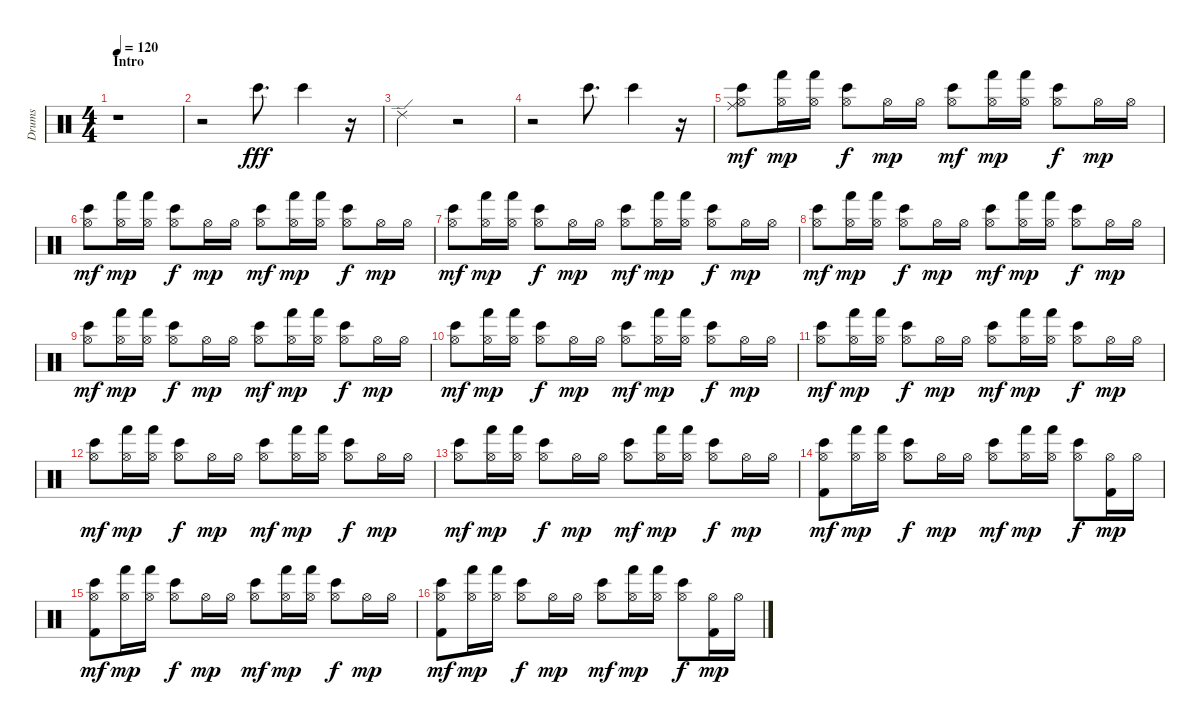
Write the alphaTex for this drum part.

\track ("Drums" "Drums") {instrument percussion}
\staff {score}
\articulation defaults
\ts (4 4)
\section ("" "Intro")
\tempo 120
\clef neutral
\ks c
r.1{dy fff} |
r.2 "Bongo High (hit)".8{d} "Bongo High (hit)".4 r.16 |
"Ride (edge) 2".2 r.2 |
r.2 "Bongo High (hit)".8{d} "Bongo High (hit)".4 r.16 |
("Hi-Hat (open)" "Bongo High (hit)" "Ride (middle)").8{dy mf} ("Hi-Hat (open)" "Hand (hit)").16{dy mp} ("Hi-Hat (open)" "Hand (hit)").16 ("Hi-Hat (open)" "Bongo High (hit)").8{dy f} "Hi-Hat (open)".16{dy mp} "Hi-Hat (open)".16 ("Hi-Hat (open)" "Bongo High (hit)").8{dy mf} ("Hi-Hat (open)" "Hand (hit)").16{dy mp} ("Hi-Hat (open)" "Hand (hit)").16 ("Hi-Hat (open)" "Bongo High (hit)").8{dy f} "Hi-Hat (open)".16{dy mp} "Hi-Hat (open)".16 |
("Hi-Hat (open)" "Bongo High (hit)").8{dy mf} ("Hi-Hat (open)" "Hand (hit)").16{dy mp} ("Hi-Hat (open)" "Hand (hit)").16 ("Hi-Hat (open)" "Bongo High (hit)").8{dy f} "Hi-Hat (open)".16{dy mp} "Hi-Hat (open)".16 ("Hi-Hat (open)" "Bongo High (hit)").8{dy mf} ("Hi-Hat (open)" "Hand (hit)").16{dy mp} ("Hi-Hat (open)" "Hand (hit)").16 ("Hi-Hat (open)" "Bongo High (hit)").8{dy f} "Hi-Hat (open)".16{dy mp} "Hi-Hat (open)".16 |
("Hi-Hat (open)" "Bongo High (hit)").8{dy mf} ("Hi-Hat (open)" "Hand (hit)").16{dy mp} ("Hi-Hat (open)" "Hand (hit)").16 ("Hi-Hat (open)" "Bongo High (hit)").8{dy f} "Hi-Hat (open)".16{dy mp} "Hi-Hat (open)".16 ("Hi-Hat (open)" "Bongo High (hit)").8{dy mf} ("Hi-Hat (open)" "Hand (hit)").16{dy mp} ("Hi-Hat (open)" "Hand (hit)").16 ("Hi-Hat (open)" "Bongo High (hit)").8{dy f} "Hi-Hat (open)".16{dy mp} "Hi-Hat (open)".16 |
("Hi-Hat (open)" "Bongo High (hit)").8{dy mf} ("Hi-Hat (open)" "Hand (hit)").16{dy mp} ("Hi-Hat (open)" "Hand (hit)").16 ("Hi-Hat (open)" "Bongo High (hit)").8{dy f} "Hi-Hat (open)".16{dy mp} "Hi-Hat (open)".16 ("Hi-Hat (open)" "Bongo High (hit)").8{dy mf} ("Hi-Hat (open)" "Hand (hit)").16{dy mp} ("Hi-Hat (open)" "Hand (hit)").16 ("Hi-Hat (open)" "Bongo High (hit)").8{dy f} "Hi-Hat (open)".16{dy mp} "Hi-Hat (open)".16 |
("Hi-Hat (open)" "Bongo High (hit)").8{dy mf} ("Hi-Hat (open)" "Hand (hit)").16{dy mp} ("Hi-Hat (open)" "Hand (hit)").16 ("Hi-Hat (open)" "Bongo High (hit)").8{dy f} "Hi-Hat (open)".16{dy mp} "Hi-Hat (open)".16 ("Hi-Hat (open)" "Bongo High (hit)").8{dy mf} ("Hi-Hat (open)" "Hand (hit)").16{dy mp} ("Hi-Hat (open)" "Hand (hit)").16 ("Hi-Hat (open)" "Bongo High (hit)").8{dy f} "Hi-Hat (open)".16{dy mp} "Hi-Hat (open)".16 |
("Hi-Hat (open)" "Bongo High (hit)").8{dy mf} ("Hi-Hat (open)" "Hand (hit)").16{dy mp} ("Hi-Hat (open)" "Hand (hit)").16 ("Hi-Hat (open)" "Bongo High (hit)").8{dy f} "Hi-Hat (open)".16{dy mp} "Hi-Hat (open)".16 ("Hi-Hat (open)" "Bongo High (hit)").8{dy mf} ("Hi-Hat (open)" "Hand (hit)").16{dy mp} ("Hi-Hat (open)" "Hand (hit)").16 ("Hi-Hat (open)" "Bongo High (hit)").8{dy f} "Hi-Hat (open)".16{dy mp} "Hi-Hat (open)".16 |
("Hi-Hat (open)" "Bongo High (hit)").8{dy mf} ("Hi-Hat (open)" "Hand (hit)").16{dy mp} ("Hi-Hat (open)" "Hand (hit)").16 ("Hi-Hat (open)" "Bongo High (hit)").8{dy f} "Hi-Hat (open)".16{dy mp} "Hi-Hat (open)".16 ("Hi-Hat (open)" "Bongo High (hit)").8{dy mf} ("Hi-Hat (open)" "Hand (hit)").16{dy mp} ("Hi-Hat (open)" "Hand (hit)").16 ("Hi-Hat (open)" "Bongo High (hit)").8{dy f} "Hi-Hat (open)".16{dy mp} "Hi-Hat (open)".16 |
("Hi-Hat (open)" "Bongo High (hit)").8{dy mf} ("Hi-Hat (open)" "Hand (hit)").16{dy mp} ("Hi-Hat (open)" "Hand (hit)").16 ("Hi-Hat (open)" "Bongo High (hit)").8{dy f} "Hi-Hat (open)".16{dy mp} "Hi-Hat (open)".16 ("Hi-Hat (open)" "Bongo High (hit)").8{dy mf} ("Hi-Hat (open)" "Hand (hit)").16{dy mp} ("Hi-Hat (open)" "Hand (hit)").16 ("Hi-Hat (open)" "Bongo High (hit)").8{dy f} "Hi-Hat (open)".16{dy mp} "Hi-Hat (open)".16 |
("Hi-Hat (open)" "Bongo High (hit)").8{dy mf} ("Hi-Hat (open)" "Hand (hit)").16{dy mp} ("Hi-Hat (open)" "Hand (hit)").16 ("Hi-Hat (open)" "Bongo High (hit)").8{dy f} "Hi-Hat (open)".16{dy mp} "Hi-Hat (open)".16 ("Hi-Hat (open)" "Bongo High (hit)").8{dy mf} ("Hi-Hat (open)" "Hand (hit)").16{dy mp} ("Hi-Hat (open)" "Hand (hit)").16 ("Hi-Hat (open)" "Bongo High (hit)").8{dy f} "Hi-Hat (open)".16{dy mp} "Hi-Hat (open)".16 |
("Hi-Hat (open)" "Kick (hit) 2" "Bongo High (hit)").8{dy mf} ("Hi-Hat (open)" "Hand (hit)").16{dy mp} ("Hi-Hat (open)" "Hand (hit)").16 ("Hi-Hat (open)" "Bongo High (hit)").8{dy f} "Hi-Hat (open)".16{dy mp} "Hi-Hat (open)".16 ("Hi-Hat (open)" "Bongo High (hit)").8{dy mf} ("Hi-Hat (open)" "Hand (hit)").16{dy mp} ("Hi-Hat (open)" "Hand (hit)").16 ("Hi-Hat (open)" "Bongo High (hit)").8{dy f} ("Hi-Hat (open)" "Kick (hit) 2").16{dy mp} "Hi-Hat (open)".16 |
("Hi-Hat (open)" "Kick (hit) 2" "Bongo High (hit)").8{dy mf} ("Hi-Hat (open)" "Hand (hit)").16{dy mp} ("Hi-Hat (open)" "Hand (hit)").16 ("Hi-Hat (open)" "Bongo High (hit)").8{dy f} "Hi-Hat (open)".16{dy mp} "Hi-Hat (open)".16 ("Hi-Hat (open)" "Bongo High (hit)").8{dy mf} ("Hi-Hat (open)" "Hand (hit)").16{dy mp} ("Hi-Hat (open)" "Hand (hit)").16 ("Hi-Hat (open)" "Bongo High (hit)").8{dy f} "Hi-Hat (open)".16{dy mp} "Hi-Hat (open)".16 |
("Hi-Hat (open)" "Kick (hit) 2" "Bongo High (hit)").8{dy mf} ("Hi-Hat (open)" "Hand (hit)").16{dy mp} ("Hi-Hat (open)" "Hand (hit)").16 ("Hi-Hat (open)" "Bongo High (hit)").8{dy f} "Hi-Hat (open)".16{dy mp} "Hi-Hat (open)".16 ("Hi-Hat (open)" "Bongo High (hit)").8{dy mf} ("Hi-Hat (open)" "Hand (hit)").16{dy mp} ("Hi-Hat (open)" "Hand (hit)").16 ("Hi-Hat (open)" "Bongo High (hit)").8{dy f} ("Hi-Hat (open)" "Kick (hit) 2").16{dy mp} "Hi-Hat (open)".16
